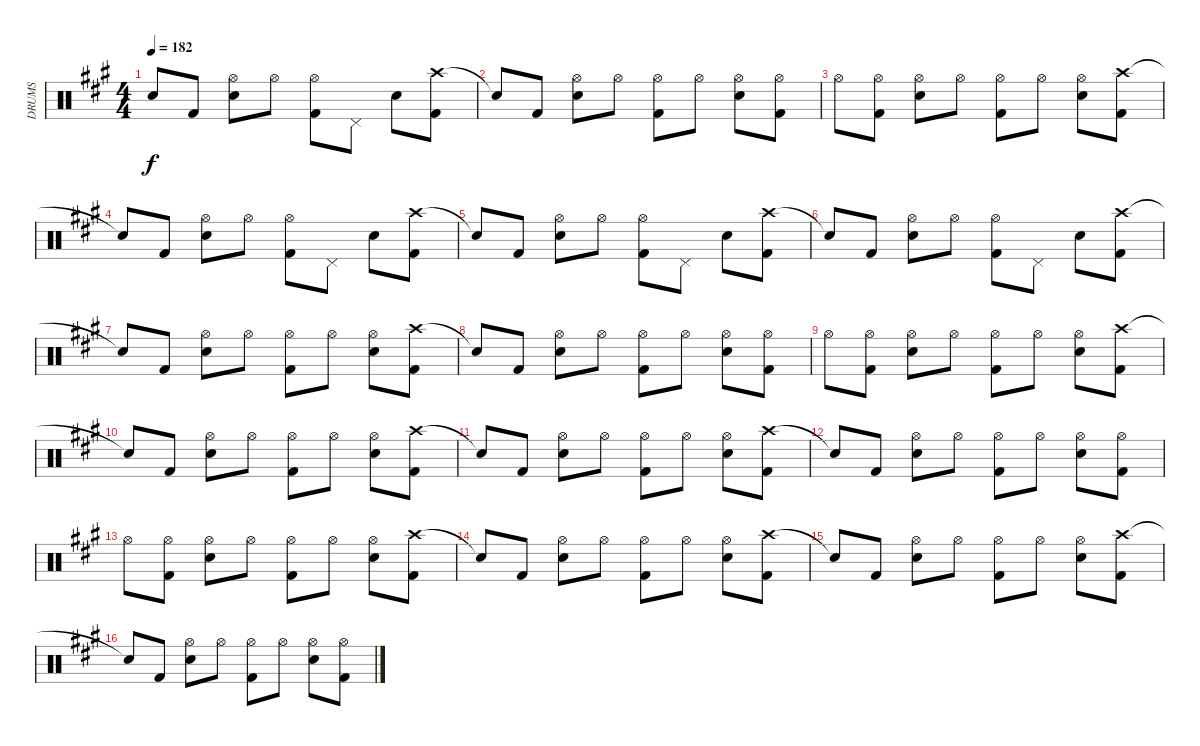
\track ("DRUMS" "DRUMS") {instrument percussion}
\staff {score}
\articulation defaults
\ts (4 4)
\tempo 182
\clef neutral
\ks a "Snare (hit)"{t}.8{dy f} "Kick (hit) 2".8
("Hi-Hat (open)" "Snare (hit) 2").8 "Hi-Hat (open)".8 ("Hi-Hat (open)" "Kick (hit) 2").8 "Pedal Hi-Hat (hit)".8 "Snare (hit) 2".8 ("Crash high (hit)" "Kick (hit) 2").8 |
"Snare (hit)"{t}.8 "Kick (hit) 2".8 ("Hi-Hat (open)" "Snare (hit) 2").8 "Hi-Hat (open)".8 ("Hi-Hat (open)" "Kick (hit) 2").8 "Hi-Hat (open)".8 ("Hi-Hat (open)" "Snare (hit) 2").8 ("Hi-Hat (open)" "Kick (hit) 2").8 |
"Hi-Hat (open)".8 ("Hi-Hat (open)" "Kick (hit) 2").8 ("Hi-Hat (open)" "Snare (hit) 2").8 "Hi-Hat (open)".8 ("Hi-Hat (open)" "Kick (hit) 2").8 "Hi-Hat (open)".8 ("Hi-Hat (open)" "Snare (hit) 2").8 ("Crash high (hit)" "Kick (hit) 2").8 |
"Snare (hit)"{t}.8 "Kick (hit) 2".8 ("Hi-Hat (open)" "Snare (hit) 2").8 "Hi-Hat (open)".8 ("Hi-Hat (open)" "Kick (hit) 2").8 "Pedal Hi-Hat (hit)".8 "Snare (hit) 2".8 ("Crash high (hit)" "Kick (hit) 2").8 |
"Snare (hit)"{t}.8 "Kick (hit) 2".8 ("Hi-Hat (open)" "Snare (hit) 2").8 "Hi-Hat (open)".8 ("Hi-Hat (open)" "Kick (hit) 2").8 "Pedal Hi-Hat (hit)".8 "Snare (hit) 2".8 ("Crash high (hit)" "Kick (hit) 2").8 |
"Snare (hit)"{t}.8 "Kick (hit) 2".8 ("Hi-Hat (open)" "Snare (hit) 2").8 "Hi-Hat (open)".8 ("Hi-Hat (open)" "Kick (hit) 2").8 "Pedal Hi-Hat (hit)".8 "Snare (hit) 2".8 ("Crash high (hit)" "Kick (hit) 2").8 |
"Snare (hit)"{t}.8 "Kick (hit) 2".8 ("Hi-Hat (open)" "Snare (hit) 2").8 "Hi-Hat (open)".8 ("Hi-Hat (open)" "Kick (hit) 2").8 "Hi-Hat (open)".8 ("Hi-Hat (open)" "Snare (hit) 2").8 ("Crash high (hit)" "Kick (hit) 2").8 |
"Snare (hit)"{t}.8 "Kick (hit) 2".8 ("Hi-Hat (open)" "Snare (hit) 2").8 "Hi-Hat (open)".8 ("Hi-Hat (open)" "Kick (hit) 2").8 "Hi-Hat (open)".8 ("Hi-Hat (open)" "Snare (hit) 2").8 ("Hi-Hat (open)" "Kick (hit) 2").8 |
"Hi-Hat (open)".8 ("Hi-Hat (open)" "Kick (hit) 2").8 ("Hi-Hat (open)" "Snare (hit) 2").8 "Hi-Hat (open)".8 ("Hi-Hat (open)" "Kick (hit) 2").8 "Hi-Hat (open)".8 ("Hi-Hat (open)" "Snare (hit) 2").8 ("Crash high (hit)" "Kick (hit) 2").8 |
"Snare (hit)"{t}.8 "Kick (hit) 2".8 ("Hi-Hat (open)" "Snare (hit) 2").8 "Hi-Hat (open)".8 ("Hi-Hat (open)" "Kick (hit) 2").8 "Hi-Hat (open)".8 ("Hi-Hat (open)" "Snare (hit) 2").8 ("Crash high (hit)" "Kick (hit) 2").8 |
"Snare (hit)"{t}.8 "Kick (hit) 2".8 ("Hi-Hat (open)" "Snare (hit) 2").8 "Hi-Hat (open)".8 ("Hi-Hat (open)" "Kick (hit) 2").8 "Hi-Hat (open)".8 ("Hi-Hat (open)" "Snare (hit) 2").8 ("Crash high (hit)" "Kick (hit) 2").8 |
"Snare (hit)"{t}.8 "Kick (hit) 2".8 ("Hi-Hat (open)" "Snare (hit) 2").8 "Hi-Hat (open)".8 ("Hi-Hat (open)" "Kick (hit) 2").8 "Hi-Hat (open)".8 ("Hi-Hat (open)" "Snare (hit) 2").8 ("Hi-Hat (open)" "Kick (hit) 2").8 |
"Hi-Hat (open)".8 ("Hi-Hat (open)" "Kick (hit) 2").8 ("Hi-Hat (open)" "Snare (hit) 2").8 "Hi-Hat (open)".8 ("Hi-Hat (open)" "Kick (hit) 2").8 "Hi-Hat (open)".8 ("Hi-Hat (open)" "Snare (hit) 2").8 ("Crash high (hit)" "Kick (hit) 2").8 |
"Snare (hit)"{t}.8 "Kick (hit) 2".8 ("Hi-Hat (open)" "Snare (hit) 2").8 "Hi-Hat (open)".8 ("Hi-Hat (open)" "Kick (hit) 2").8 "Hi-Hat (open)".8 ("Hi-Hat (open)" "Snare (hit) 2").8 ("Crash high (hit)" "Kick (hit) 2").8 |
"Snare (hit)"{t}.8 "Kick (hit) 2".8 ("Hi-Hat (open)" "Snare (hit) 2").8 "Hi-Hat (open)".8 ("Hi-Hat (open)" "Kick (hit) 2").8 "Hi-Hat (open)".8 ("Hi-Hat (open)" "Snare (hit) 2").8 ("Crash high (hit)" "Kick (hit) 2").8 |
"Snare (hit)"{t}.8 "Kick (hit) 2".8 ("Hi-Hat (open)" "Snare (hit) 2").8 "Hi-Hat (open)".8 ("Hi-Hat (open)" "Kick (hit) 2").8 "Hi-Hat (open)".8 ("Hi-Hat (open)" "Snare (hit) 2").8 ("Hi-Hat (open)" "Kick (hit) 2").8
